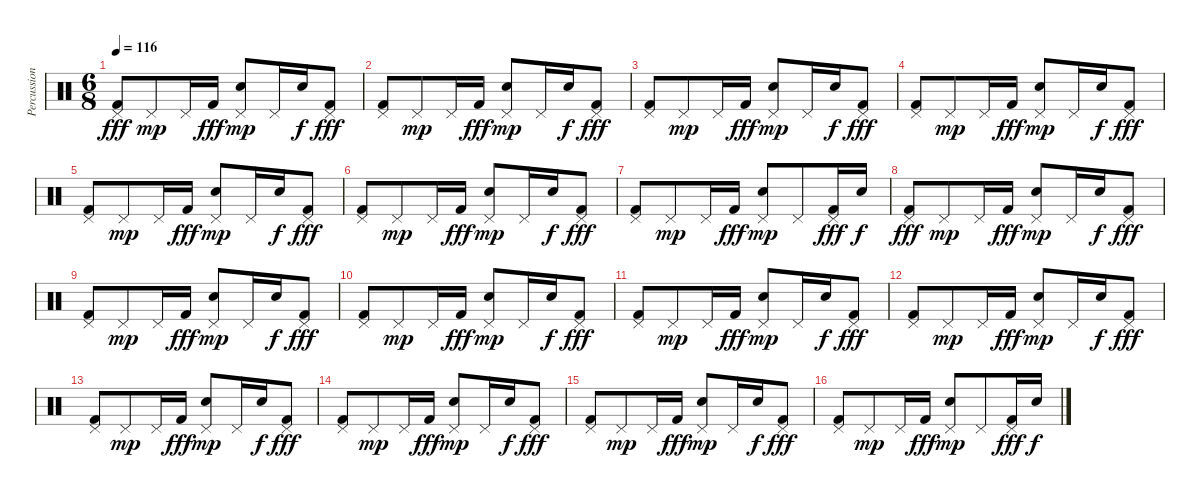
\track ("Percussions" "Percussion") {instrument percussion}
\staff {score}
\articulation defaults
\ts (6 8)
\tempo 116
\clef neutral
\ks c
("Pedal Hi-Hat (hit)" "Kick (hit) 2").8{dy fff} "Pedal Hi-Hat (hit)".8{dy mp} "Pedal Hi-Hat (hit)".16 "Kick (hit) 2".16{dy fff} ("Pedal Hi-Hat (hit)" "Snare (hit) 2").8{dy mp} "Pedal Hi-Hat (hit)".16 "Snare (hit) 2".16{dy f} ("Pedal Hi-Hat (hit)" "Kick (hit) 2").8{dy fff} |
("Pedal Hi-Hat (hit)" "Kick (hit) 2").8 "Pedal Hi-Hat (hit)".8{dy mp} "Pedal Hi-Hat (hit)".16 "Kick (hit) 2".16{dy fff} ("Pedal Hi-Hat (hit)" "Snare (hit) 2").8{dy mp} "Pedal Hi-Hat (hit)".16 "Snare (hit) 2".16{dy f} ("Pedal Hi-Hat (hit)" "Kick (hit) 2").8{dy fff} |
("Pedal Hi-Hat (hit)" "Kick (hit) 2").8 "Pedal Hi-Hat (hit)".8{dy mp} "Pedal Hi-Hat (hit)".16 "Kick (hit) 2".16{dy fff} ("Pedal Hi-Hat (hit)" "Snare (hit) 2").8{dy mp} "Pedal Hi-Hat (hit)".16 "Snare (hit) 2".16{dy f} ("Pedal Hi-Hat (hit)" "Kick (hit) 2").8{dy fff} |
("Pedal Hi-Hat (hit)" "Kick (hit) 2").8 "Pedal Hi-Hat (hit)".8{dy mp} "Pedal Hi-Hat (hit)".16 "Kick (hit) 2".16{dy fff} ("Pedal Hi-Hat (hit)" "Snare (hit) 2").8{dy mp} "Pedal Hi-Hat (hit)".16 "Snare (hit) 2".16{dy f} ("Pedal Hi-Hat (hit)" "Kick (hit) 2").8{dy fff} |
("Pedal Hi-Hat (hit)" "Kick (hit) 2").8 "Pedal Hi-Hat (hit)".8{dy mp} "Pedal Hi-Hat (hit)".16 "Kick (hit) 2".16{dy fff} ("Pedal Hi-Hat (hit)" "Snare (hit) 2").8{dy mp} "Pedal Hi-Hat (hit)".16 "Snare (hit) 2".16{dy f} ("Pedal Hi-Hat (hit)" "Kick (hit) 2").8{dy fff} |
("Pedal Hi-Hat (hit)" "Kick (hit) 2").8 "Pedal Hi-Hat (hit)".8{dy mp} "Pedal Hi-Hat (hit)".16 "Kick (hit) 2".16{dy fff} ("Pedal Hi-Hat (hit)" "Snare (hit) 2").8{dy mp} "Pedal Hi-Hat (hit)".16 "Snare (hit) 2".16{dy f} ("Pedal Hi-Hat (hit)" "Kick (hit) 2").8{dy fff} |
("Pedal Hi-Hat (hit)" "Kick (hit) 2").8 "Pedal Hi-Hat (hit)".8{dy mp} "Pedal Hi-Hat (hit)".16 "Kick (hit) 2".16{dy fff} ("Pedal Hi-Hat (hit)" "Snare (hit) 2").8{dy mp} "Pedal Hi-Hat (hit)".8 ("Pedal Hi-Hat (hit)" "Kick (hit) 2").16{dy fff} "Snare (hit) 2".16{dy f} |
("Pedal Hi-Hat (hit)" "Kick (hit) 2").8{dy fff} "Pedal Hi-Hat (hit)".8{dy mp} "Pedal Hi-Hat (hit)".16 "Kick (hit) 2".16{dy fff} ("Pedal Hi-Hat (hit)" "Snare (hit) 2").8{dy mp} "Pedal Hi-Hat (hit)".16 "Snare (hit) 2".16{dy f} ("Pedal Hi-Hat (hit)" "Kick (hit) 2").8{dy fff} |
("Pedal Hi-Hat (hit)" "Kick (hit) 2").8 "Pedal Hi-Hat (hit)".8{dy mp} "Pedal Hi-Hat (hit)".16 "Kick (hit) 2".16{dy fff} ("Pedal Hi-Hat (hit)" "Snare (hit) 2").8{dy mp} "Pedal Hi-Hat (hit)".16 "Snare (hit) 2".16{dy f} ("Pedal Hi-Hat (hit)" "Kick (hit) 2").8{dy fff} |
("Pedal Hi-Hat (hit)" "Kick (hit) 2").8 "Pedal Hi-Hat (hit)".8{dy mp} "Pedal Hi-Hat (hit)".16 "Kick (hit) 2".16{dy fff} ("Pedal Hi-Hat (hit)" "Snare (hit) 2").8{dy mp} "Pedal Hi-Hat (hit)".16 "Snare (hit) 2".16{dy f} ("Pedal Hi-Hat (hit)" "Kick (hit) 2").8{dy fff} |
("Pedal Hi-Hat (hit)" "Kick (hit) 2").8 "Pedal Hi-Hat (hit)".8{dy mp} "Pedal Hi-Hat (hit)".16 "Kick (hit) 2".16{dy fff} ("Pedal Hi-Hat (hit)" "Snare (hit) 2").8{dy mp} "Pedal Hi-Hat (hit)".16 "Snare (hit) 2".16{dy f} ("Pedal Hi-Hat (hit)" "Kick (hit) 2").8{dy fff} |
("Pedal Hi-Hat (hit)" "Kick (hit) 2").8 "Pedal Hi-Hat (hit)".8{dy mp} "Pedal Hi-Hat (hit)".16 "Kick (hit) 2".16{dy fff} ("Pedal Hi-Hat (hit)" "Snare (hit) 2").8{dy mp} "Pedal Hi-Hat (hit)".16 "Snare (hit) 2".16{dy f} ("Pedal Hi-Hat (hit)" "Kick (hit) 2").8{dy fff} |
("Pedal Hi-Hat (hit)" "Kick (hit) 2").8 "Pedal Hi-Hat (hit)".8{dy mp} "Pedal Hi-Hat (hit)".16 "Kick (hit) 2".16{dy fff} ("Pedal Hi-Hat (hit)" "Snare (hit) 2").8{dy mp} "Pedal Hi-Hat (hit)".16 "Snare (hit) 2".16{dy f} ("Pedal Hi-Hat (hit)" "Kick (hit) 2").8{dy fff} |
("Pedal Hi-Hat (hit)" "Kick (hit) 2").8 "Pedal Hi-Hat (hit)".8{dy mp} "Pedal Hi-Hat (hit)".16 "Kick (hit) 2".16{dy fff} ("Pedal Hi-Hat (hit)" "Snare (hit) 2").8{dy mp} "Pedal Hi-Hat (hit)".16 "Snare (hit) 2".16{dy f} ("Pedal Hi-Hat (hit)" "Kick (hit) 2").8{dy fff} |
("Pedal Hi-Hat (hit)" "Kick (hit) 2").8 "Pedal Hi-Hat (hit)".8{dy mp} "Pedal Hi-Hat (hit)".16 "Kick (hit) 2".16{dy fff} ("Pedal Hi-Hat (hit)" "Snare (hit) 2").8{dy mp} "Pedal Hi-Hat (hit)".16 "Snare (hit) 2".16{dy f} ("Pedal Hi-Hat (hit)" "Kick (hit) 2").8{dy fff} |
("Pedal Hi-Hat (hit)" "Kick (hit) 2").8 "Pedal Hi-Hat (hit)".8{dy mp} "Pedal Hi-Hat (hit)".16 "Kick (hit) 2".16{dy fff} ("Pedal Hi-Hat (hit)" "Snare (hit) 2").8{dy mp} "Pedal Hi-Hat (hit)".8 ("Pedal Hi-Hat (hit)" "Kick (hit) 2").16{dy fff} "Snare (hit) 2".16{dy f}
